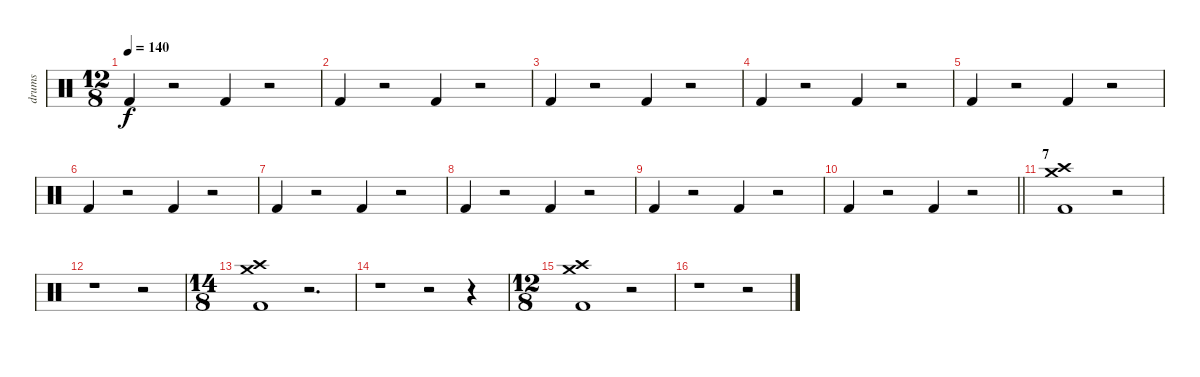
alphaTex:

\track ("drums" "drums") {instrument percussion}
\staff {score}
\articulation defaults
\ts (12 8)
\tempo 140
\clef neutral
\ks c "Kick (hit) 2".4{dy f}
r.2 "Kick (hit) 2".4 r.2 |
"Kick (hit) 2".4 r.2 "Kick (hit) 2".4 r.2 |
"Kick (hit) 2".4 r.2 "Kick (hit) 2".4 r.2 |
"Kick (hit) 2".4 r.2 "Kick (hit) 2".4 r.2 |
"Kick (hit) 2".4 r.2 "Kick (hit) 2".4 r.2 |
"Kick (hit) 2".4 r.2 "Kick (hit) 2".4 r.2 |
"Kick (hit) 2".4 r.2 "Kick (hit) 2".4 r.2 |
"Kick (hit) 2".4 r.2 "Kick (hit) 2".4 r.2 |
"Kick (hit) 2".4 r.2 "Kick (hit) 2".4 r.2 |
\barLineRight lightlight "Kick (hit) 2".4
r.2 "Kick (hit) 2".4 r.2 |
\section ("" "7")
("Crash medium (hit)" "Crash high (hit)" "Kick (hit) 2").1 r.2 |
r.1 r.2 |
\ts (14 8)
("Crash medium (hit)" "Crash high (hit)" "Kick (hit) 2").1 r.2{d} |
r.1 r.2 r.4 |
\ts (12 8)
("Crash medium (hit)" "Crash high (hit)" "Kick (hit) 2").1 r.2 |
r.1 r.2
